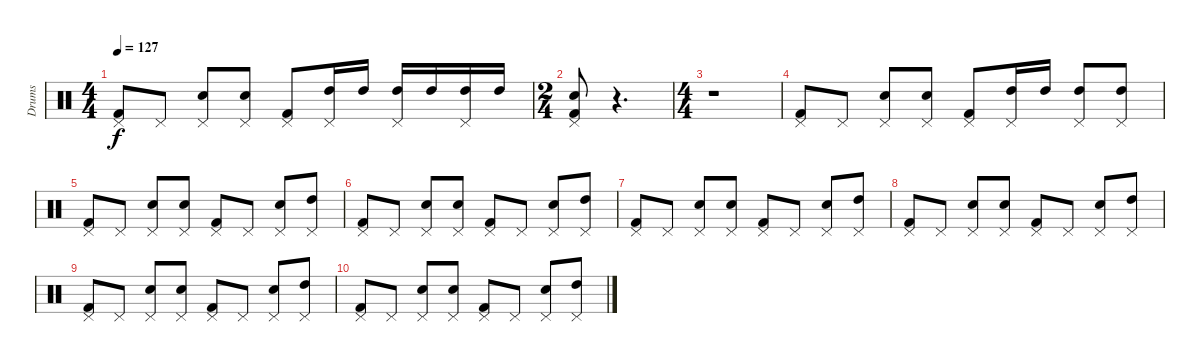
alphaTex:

\track ("Drums" "Drums") {instrument percussion}
\staff {score}
\articulation defaults
\ts (4 4)
\tempo 127
\clef neutral
\ks c
("Pedal Hi-Hat (hit)" "Kick (hit) 2").8{dy f} "Pedal Hi-Hat (hit)".8 ("Pedal Hi-Hat (hit)" "Snare (hit) 2").8 ("Pedal Hi-Hat (hit)" "Snare (hit) 2").8 ("Pedal Hi-Hat (hit)" "Kick (hit) 2").8 ("Pedal Hi-Hat (hit)" "High Tom (hit)").16 "High Tom (hit)".16 ("Pedal Hi-Hat (hit)" "High Tom (hit)").16 "High Tom (hit)".16 ("Pedal Hi-Hat (hit)" "High Tom (hit)").16 "High Tom (hit)".16 |
\ts (2 4)
("Pedal Hi-Hat (hit)" "Snare (hit) 2" "Kick (hit) 2").8 r.4{d} |
\ts (4 4)
r.1 |
("Pedal Hi-Hat (hit)" "Kick (hit) 2").8 "Pedal Hi-Hat (hit)".8 ("Pedal Hi-Hat (hit)" "Snare (hit) 2").8 ("Pedal Hi-Hat (hit)" "Snare (hit) 2").8 ("Pedal Hi-Hat (hit)" "Kick (hit) 2").8 ("Pedal Hi-Hat (hit)" "High Tom (hit)").16 "High Tom (hit)".16 ("Pedal Hi-Hat (hit)" "High Tom (hit)").8 ("Pedal Hi-Hat (hit)" "High Tom (hit)").8 |
("Pedal Hi-Hat (hit)" "Kick (hit) 2").8 "Pedal Hi-Hat (hit)".8 ("Pedal Hi-Hat (hit)" "Snare (hit) 2").8 ("Pedal Hi-Hat (hit)" "Snare (hit) 2").8 ("Pedal Hi-Hat (hit)" "Kick (hit) 2").8 "Pedal Hi-Hat (hit)".8 ("Pedal Hi-Hat (hit)" "Snare (hit) 2").8 ("Pedal Hi-Hat (hit)" "High Tom (hit)").8 |
("Pedal Hi-Hat (hit)" "Kick (hit) 2").8 "Pedal Hi-Hat (hit)".8 ("Pedal Hi-Hat (hit)" "Snare (hit) 2").8 ("Pedal Hi-Hat (hit)" "Snare (hit) 2").8 ("Pedal Hi-Hat (hit)" "Kick (hit) 2").8 "Pedal Hi-Hat (hit)".8 ("Pedal Hi-Hat (hit)" "Snare (hit) 2").8 ("Pedal Hi-Hat (hit)" "High Tom (hit)").8 |
("Pedal Hi-Hat (hit)" "Kick (hit) 2").8 "Pedal Hi-Hat (hit)".8 ("Pedal Hi-Hat (hit)" "Snare (hit) 2").8 ("Pedal Hi-Hat (hit)" "Snare (hit) 2").8 ("Pedal Hi-Hat (hit)" "Kick (hit) 2").8 "Pedal Hi-Hat (hit)".8 ("Pedal Hi-Hat (hit)" "Snare (hit) 2").8 ("Pedal Hi-Hat (hit)" "High Tom (hit)").8 |
("Pedal Hi-Hat (hit)" "Kick (hit) 2").8 "Pedal Hi-Hat (hit)".8 ("Pedal Hi-Hat (hit)" "Snare (hit) 2").8 ("Pedal Hi-Hat (hit)" "Snare (hit) 2").8 ("Pedal Hi-Hat (hit)" "Kick (hit) 2").8 "Pedal Hi-Hat (hit)".8 ("Pedal Hi-Hat (hit)" "Snare (hit) 2").8 ("Pedal Hi-Hat (hit)" "High Tom (hit)").8 |
("Pedal Hi-Hat (hit)" "Kick (hit) 2").8 "Pedal Hi-Hat (hit)".8 ("Pedal Hi-Hat (hit)" "Snare (hit) 2").8 ("Pedal Hi-Hat (hit)" "Snare (hit) 2").8 ("Pedal Hi-Hat (hit)" "Kick (hit) 2").8 "Pedal Hi-Hat (hit)".8 ("Pedal Hi-Hat (hit)" "Snare (hit) 2").8 ("Pedal Hi-Hat (hit)" "High Tom (hit)").8 |
("Pedal Hi-Hat (hit)" "Kick (hit) 2").8 "Pedal Hi-Hat (hit)".8 ("Pedal Hi-Hat (hit)" "Snare (hit) 2").8 ("Pedal Hi-Hat (hit)" "Snare (hit) 2").8 ("Pedal Hi-Hat (hit)" "Kick (hit) 2").8 "Pedal Hi-Hat (hit)".8 ("Pedal Hi-Hat (hit)" "Snare (hit) 2").8 ("Pedal Hi-Hat (hit)" "High Tom (hit)").8
